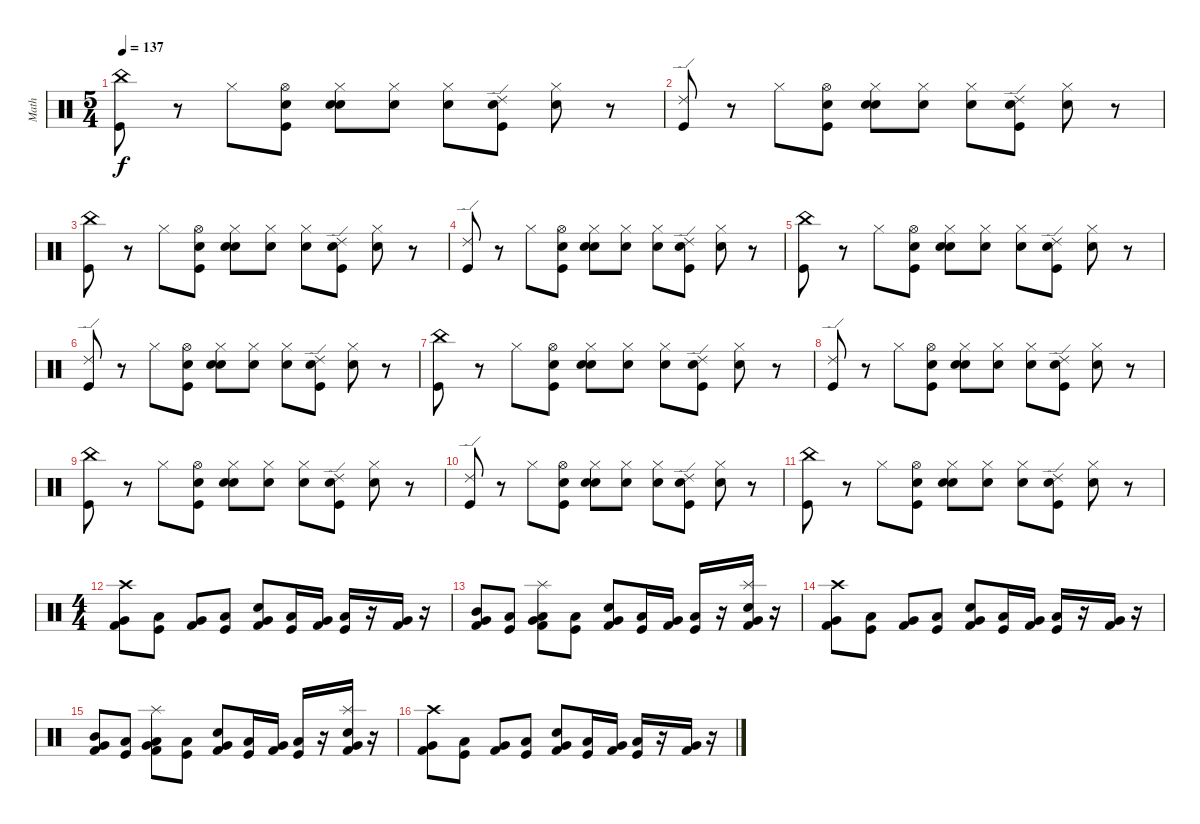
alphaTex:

\track ("Math" "Math") {instrument percussion}
\staff {score}
\articulation defaults
\ts (5 4)
\tempo 137
\clef neutral
\ks c
("Kick (hit)" "China (hit)").8{dy f} r.8 "Hi-Hat (closed)".8 ("Snare (hit)" "Kick (hit)" "Hi-Hat (open)").8 ("Snare (hit)" "Snare (hit) 2" "Hi-Hat (closed)").8 ("Snare (hit)" "Hi-Hat (closed)").8 ("Snare (hit)" "Hi-Hat (closed)").8 ("Snare (hit)" "Kick (hit)" "Ride (edge) 2").8 ("Snare (hit)" "Hi-Hat (closed)").8 r.8 |
("Kick (hit)" "Ride (edge) 2").8 r.8 "Hi-Hat (closed)".8 ("Snare (hit)" "Kick (hit)" "Hi-Hat (open)").8 ("Snare (hit)" "Snare (hit) 2" "Hi-Hat (closed)").8 ("Snare (hit)" "Hi-Hat (closed)").8 ("Snare (hit)" "Hi-Hat (closed)").8 ("Snare (hit)" "Kick (hit)" "Ride (edge) 2").8 ("Snare (hit)" "Hi-Hat (closed)").8 r.8 |
("Kick (hit)" "China (hit)").8 r.8 "Hi-Hat (closed)".8 ("Snare (hit)" "Kick (hit)" "Hi-Hat (open)").8 ("Snare (hit)" "Snare (hit) 2" "Hi-Hat (closed)").8 ("Snare (hit)" "Hi-Hat (closed)").8 ("Snare (hit)" "Hi-Hat (closed)").8 ("Snare (hit)" "Kick (hit)" "Ride (edge) 2").8 ("Snare (hit)" "Hi-Hat (closed)").8 r.8 |
("Kick (hit)" "Ride (edge) 2").8 r.8 "Hi-Hat (closed)".8 ("Snare (hit)" "Kick (hit)" "Hi-Hat (open)").8 ("Snare (hit)" "Snare (hit) 2" "Hi-Hat (closed)").8 ("Snare (hit)" "Hi-Hat (closed)").8 ("Snare (hit)" "Hi-Hat (closed)").8 ("Snare (hit)" "Kick (hit)" "Ride (edge) 2").8 ("Snare (hit)" "Hi-Hat (closed)").8 r.8 |
("Kick (hit)" "China (hit)").8 r.8 "Hi-Hat (closed)".8 ("Snare (hit)" "Kick (hit)" "Hi-Hat (open)").8 ("Snare (hit)" "Snare (hit) 2" "Hi-Hat (closed)").8 ("Snare (hit)" "Hi-Hat (closed)").8 ("Snare (hit)" "Hi-Hat (closed)").8 ("Snare (hit)" "Kick (hit)" "Ride (edge) 2").8 ("Snare (hit)" "Hi-Hat (closed)").8 r.8 |
("Kick (hit)" "Ride (edge) 2").8 r.8 "Hi-Hat (closed)".8 ("Snare (hit)" "Kick (hit)" "Hi-Hat (open)").8 ("Snare (hit)" "Snare (hit) 2" "Hi-Hat (closed)").8 ("Snare (hit)" "Hi-Hat (closed)").8 ("Snare (hit)" "Hi-Hat (closed)").8 ("Snare (hit)" "Kick (hit)" "Ride (edge) 2").8 ("Snare (hit)" "Hi-Hat (closed)").8 r.8 |
("Kick (hit)" "China (hit)").8 r.8 "Hi-Hat (closed)".8 ("Snare (hit)" "Kick (hit)" "Hi-Hat (open)").8 ("Snare (hit)" "Snare (hit) 2" "Hi-Hat (closed)").8 ("Snare (hit)" "Hi-Hat (closed)").8 ("Snare (hit)" "Hi-Hat (closed)").8 ("Snare (hit)" "Kick (hit)" "Ride (edge) 2").8 ("Snare (hit)" "Hi-Hat (closed)").8 r.8 |
("Kick (hit)" "Ride (edge) 2").8 r.8 "Hi-Hat (closed)".8 ("Snare (hit)" "Kick (hit)" "Hi-Hat (open)").8 ("Snare (hit)" "Snare (hit) 2" "Hi-Hat (closed)").8 ("Snare (hit)" "Hi-Hat (closed)").8 ("Snare (hit)" "Hi-Hat (closed)").8 ("Snare (hit)" "Kick (hit)" "Ride (edge) 2").8 ("Snare (hit)" "Hi-Hat (closed)").8 r.8 |
("Kick (hit)" "China (hit)").8 r.8 "Hi-Hat (closed)".8 ("Snare (hit)" "Kick (hit)" "Hi-Hat (open)").8 ("Snare (hit)" "Snare (hit) 2" "Hi-Hat (closed)").8 ("Snare (hit)" "Hi-Hat (closed)").8 ("Snare (hit)" "Hi-Hat (closed)").8 ("Snare (hit)" "Kick (hit)" "Ride (edge) 2").8 ("Snare (hit)" "Hi-Hat (closed)").8 r.8 |
("Kick (hit)" "Ride (edge) 2").8 r.8 "Hi-Hat (closed)".8 ("Snare (hit)" "Kick (hit)" "Hi-Hat (open)").8 ("Snare (hit)" "Snare (hit) 2" "Hi-Hat (closed)").8 ("Snare (hit)" "Hi-Hat (closed)").8 ("Snare (hit)" "Hi-Hat (closed)").8 ("Snare (hit)" "Kick (hit)" "Ride (edge) 2").8 ("Snare (hit)" "Hi-Hat (closed)").8 r.8 |
("Kick (hit)" "China (hit)").8 r.8 "Hi-Hat (closed)".8 ("Snare (hit)" "Kick (hit)" "Hi-Hat (open)").8 ("Snare (hit)" "Snare (hit) 2" "Hi-Hat (closed)").8 ("Snare (hit)" "Hi-Hat (closed)").8 ("Snare (hit)" "Hi-Hat (closed)").8 ("Snare (hit)" "Kick (hit)" "Ride (edge) 2").8 ("Snare (hit)" "Hi-Hat (closed)").8 r.8 |
\ts (4 4)
("Crash high (hit)" "Very Low Tom (hit)" "Kick (hit) 2").8 ("Low Tom (hit)" "Kick (hit)").8 ("Very Low Tom (hit)" "Kick (hit) 2").8 ("Low Tom (hit)" "Kick (hit)").8 ("Snare (hit) 2" "Very Low Tom (hit)" "Kick (hit) 2").8 ("Low Tom (hit)" "Kick (hit)").16 ("Very Low Tom (hit)" "Kick (hit) 2").16 ("Low Tom (hit)" "Kick (hit)").16 r.16 ("Very Low Tom (hit)" "Kick (hit) 2").16 r.16 |
("Mid Tom (hit)" "Very Low Tom (hit)" "Kick (hit) 2").8 ("Low Tom (hit)" "Kick (hit)").8 ("Low Tom (hit)" "Very Low Tom (hit)" "Kick (hit) 2" "Splash (hit)").8 ("Low Tom (hit)" "Kick (hit)").8 ("Electric Snare (hit)" "Very Low Tom (hit)" "Kick (hit) 2").8 ("Low Tom (hit)" "Kick (hit)").16 ("Very Low Tom (hit)" "Kick (hit) 2").16 ("Low Tom (hit)" "Kick (hit)").16 r.16 ("Electric Snare (hit)" "Very Low Tom (hit)" "Kick (hit) 2" "Splash (hit)").16 r.16 |
("Crash high (hit)" "Very Low Tom (hit)" "Kick (hit) 2").8 ("Low Tom (hit)" "Kick (hit)").8 ("Very Low Tom (hit)" "Kick (hit) 2").8 ("Low Tom (hit)" "Kick (hit)").8 ("Snare (hit) 2" "Very Low Tom (hit)" "Kick (hit) 2").8 ("Low Tom (hit)" "Kick (hit)").16 ("Very Low Tom (hit)" "Kick (hit) 2").16 ("Low Tom (hit)" "Kick (hit)").16 r.16 ("Very Low Tom (hit)" "Kick (hit) 2").16 r.16 |
("Mid Tom (hit)" "Very Low Tom (hit)" "Kick (hit) 2").8 ("Low Tom (hit)" "Kick (hit)").8 ("Low Tom (hit)" "Very Low Tom (hit)" "Kick (hit) 2" "Splash (hit)").8 ("Low Tom (hit)" "Kick (hit)").8 ("Electric Snare (hit)" "Very Low Tom (hit)" "Kick (hit) 2").8 ("Low Tom (hit)" "Kick (hit)").16 ("Very Low Tom (hit)" "Kick (hit) 2").16 ("Low Tom (hit)" "Kick (hit)").16 r.16 ("Electric Snare (hit)" "Very Low Tom (hit)" "Kick (hit) 2" "Splash (hit)").16 r.16 |
("Crash high (hit)" "Very Low Tom (hit)" "Kick (hit) 2").8 ("Low Tom (hit)" "Kick (hit)").8 ("Very Low Tom (hit)" "Kick (hit) 2").8 ("Low Tom (hit)" "Kick (hit)").8 ("Snare (hit) 2" "Very Low Tom (hit)" "Kick (hit) 2").8 ("Low Tom (hit)" "Kick (hit)").16 ("Very Low Tom (hit)" "Kick (hit) 2").16 ("Low Tom (hit)" "Kick (hit)").16 r.16 ("Very Low Tom (hit)" "Kick (hit) 2").16 r.16
